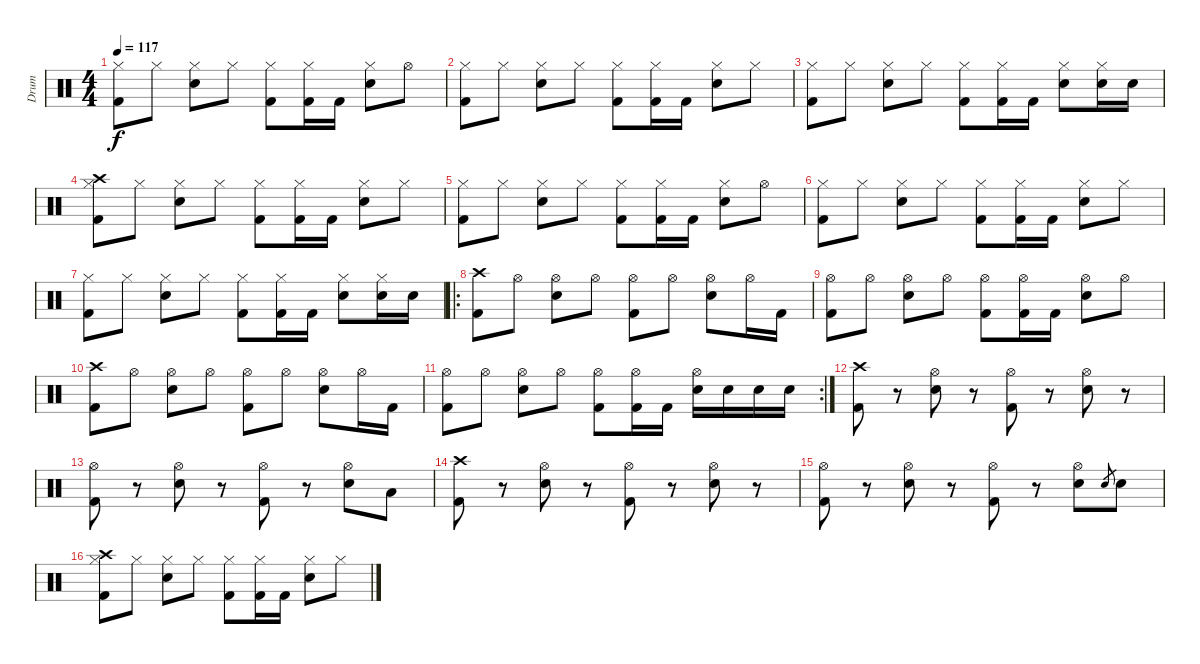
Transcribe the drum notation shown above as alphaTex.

\track ("Drum" "Drum") {instrument percussion}
\staff {score}
\articulation defaults
\ts (4 4)
\tempo 117
\clef neutral
\ks c
("Hi-Hat (closed)" "Kick (hit) 2").8{dy f} "Hi-Hat (closed)".8 ("Hi-Hat (closed)" "Electric Snare (hit)").8 "Hi-Hat (closed)".8 ("Hi-Hat (closed)" "Kick (hit) 2").8 ("Hi-Hat (closed)" "Kick (hit) 2").16 "Kick (hit) 2".16 ("Hi-Hat (closed)" "Electric Snare (hit)").8 "Hi-Hat (open)".8 |
("Hi-Hat (closed)" "Kick (hit) 2").8 "Hi-Hat (closed)".8 ("Hi-Hat (closed)" "Electric Snare (hit)").8 "Hi-Hat (closed)".8 ("Hi-Hat (closed)" "Kick (hit) 2").8 ("Hi-Hat (closed)" "Kick (hit) 2").16 "Kick (hit) 2".16 ("Hi-Hat (closed)" "Electric Snare (hit)").8 "Hi-Hat (closed)".8 |
("Hi-Hat (closed)" "Kick (hit) 2").8 "Hi-Hat (closed)".8 ("Hi-Hat (closed)" "Electric Snare (hit)").8 "Hi-Hat (closed)".8 ("Hi-Hat (closed)" "Kick (hit) 2").8 ("Hi-Hat (closed)" "Kick (hit) 2").16 "Kick (hit) 2".16 ("Hi-Hat (closed)" "Electric Snare (hit)").8 ("Hi-Hat (closed)" "Electric Snare (hit)").16 "Electric Snare (hit)".16 |
("Crash high (hit)" "Hi-Hat (closed)" "Kick (hit) 2").8 "Hi-Hat (closed)".8 ("Hi-Hat (closed)" "Electric Snare (hit)").8 "Hi-Hat (closed)".8 ("Hi-Hat (closed)" "Kick (hit) 2").8 ("Hi-Hat (closed)" "Kick (hit) 2").16 "Kick (hit) 2".16 ("Hi-Hat (closed)" "Electric Snare (hit)").8 "Hi-Hat (closed)".8 |
("Hi-Hat (closed)" "Kick (hit) 2").8 "Hi-Hat (closed)".8 ("Hi-Hat (closed)" "Electric Snare (hit)").8 "Hi-Hat (closed)".8 ("Hi-Hat (closed)" "Kick (hit) 2").8 ("Hi-Hat (closed)" "Kick (hit) 2").16 "Kick (hit) 2".16 ("Hi-Hat (closed)" "Electric Snare (hit)").8 "Hi-Hat (open)".8 |
("Hi-Hat (closed)" "Kick (hit) 2").8 "Hi-Hat (closed)".8 ("Hi-Hat (closed)" "Electric Snare (hit)").8 "Hi-Hat (closed)".8 ("Hi-Hat (closed)" "Kick (hit) 2").8 ("Hi-Hat (closed)" "Kick (hit) 2").16 "Kick (hit) 2".16 ("Hi-Hat (closed)" "Electric Snare (hit)").8 "Hi-Hat (closed)".8 |
("Hi-Hat (closed)" "Kick (hit) 2").8 "Hi-Hat (closed)".8 ("Hi-Hat (closed)" "Electric Snare (hit)").8 "Hi-Hat (closed)".8 ("Hi-Hat (closed)" "Kick (hit) 2").8 ("Hi-Hat (closed)" "Kick (hit) 2").16 "Kick (hit) 2".16 ("Hi-Hat (closed)" "Electric Snare (hit)").8 ("Hi-Hat (closed)" "Electric Snare (hit)").16 "Electric Snare (hit)".16 |
\ro
("Crash high (hit)" "Kick (hit) 2").8 "Hi-Hat (open)".8 ("Hi-Hat (open)" "Electric Snare (hit)").8 "Hi-Hat (open)".8 ("Hi-Hat (open)" "Kick (hit) 2").8 "Hi-Hat (open)".8 ("Hi-Hat (open)" "Electric Snare (hit)").8 "Hi-Hat (open)".16 "Kick (hit) 2".16 |
("Hi-Hat (open)" "Kick (hit) 2").8 "Hi-Hat (open)".8 ("Hi-Hat (open)" "Electric Snare (hit)").8 "Hi-Hat (open)".8 ("Hi-Hat (open)" "Kick (hit) 2").8 ("Hi-Hat (open)" "Kick (hit) 2").16 "Kick (hit) 2".16 ("Hi-Hat (open)" "Electric Snare (hit)").8 "Hi-Hat (open)".8 |
("Crash high (hit)" "Kick (hit) 2").8 "Hi-Hat (open)".8 ("Hi-Hat (open)" "Electric Snare (hit)").8 "Hi-Hat (open)".8 ("Hi-Hat (open)" "Kick (hit) 2").8 "Hi-Hat (open)".8 ("Hi-Hat (open)" "Electric Snare (hit)").8 "Hi-Hat (open)".16 "Kick (hit) 2".16 |
\rc 2
("Hi-Hat (open)" "Kick (hit) 2").8 "Hi-Hat (open)".8 ("Hi-Hat (open)" "Electric Snare (hit)").8 "Hi-Hat (open)".8 ("Hi-Hat (open)" "Kick (hit) 2").8 ("Hi-Hat (open)" "Kick (hit) 2").16 "Kick (hit) 2".16 ("Hi-Hat (open)" "Electric Snare (hit)").16 "Electric Snare (hit)".16 "Electric Snare (hit)".16 "Electric Snare (hit)".16 |
("Crash high (hit)" "Kick (hit) 2").8 r.8 ("Hi-Hat (open)" "Electric Snare (hit)").8 r.8 ("Hi-Hat (open)" "Kick (hit) 2").8 r.8 ("Hi-Hat (open)" "Electric Snare (hit)").8 r.8 |
("Hi-Hat (open)" "Kick (hit) 2").8 r.8 ("Hi-Hat (open)" "Electric Snare (hit)").8 r.8 ("Hi-Hat (open)" "Kick (hit) 2").8 r.8 ("Hi-Hat (open)" "Electric Snare (hit)").8 "Low Tom (hit)".8 |
("Crash high (hit)" "Kick (hit) 2").8 r.8 ("Hi-Hat (open)" "Electric Snare (hit)").8 r.8 ("Hi-Hat (open)" "Kick (hit) 2").8 r.8 ("Hi-Hat (open)" "Electric Snare (hit)").8 r.8 |
("Hi-Hat (open)" "Kick (hit) 2").8 r.8 ("Hi-Hat (open)" "Electric Snare (hit)").8 r.8 ("Hi-Hat (open)" "Kick (hit) 2").8 r.8 ("Hi-Hat (open)" "Electric Snare (hit)").8 "Electric Snare (hit)".8{gr} "Electric Snare (hit)".8 |
("Crash high (hit)" "Hi-Hat (closed)" "Kick (hit) 2").8 "Hi-Hat (closed)".8 ("Hi-Hat (closed)" "Electric Snare (hit)").8 "Hi-Hat (closed)".8 ("Hi-Hat (closed)" "Kick (hit) 2").8 ("Hi-Hat (closed)" "Kick (hit) 2").16 "Kick (hit) 2".16 ("Hi-Hat (closed)" "Electric Snare (hit)").8 "Hi-Hat (closed)".8
